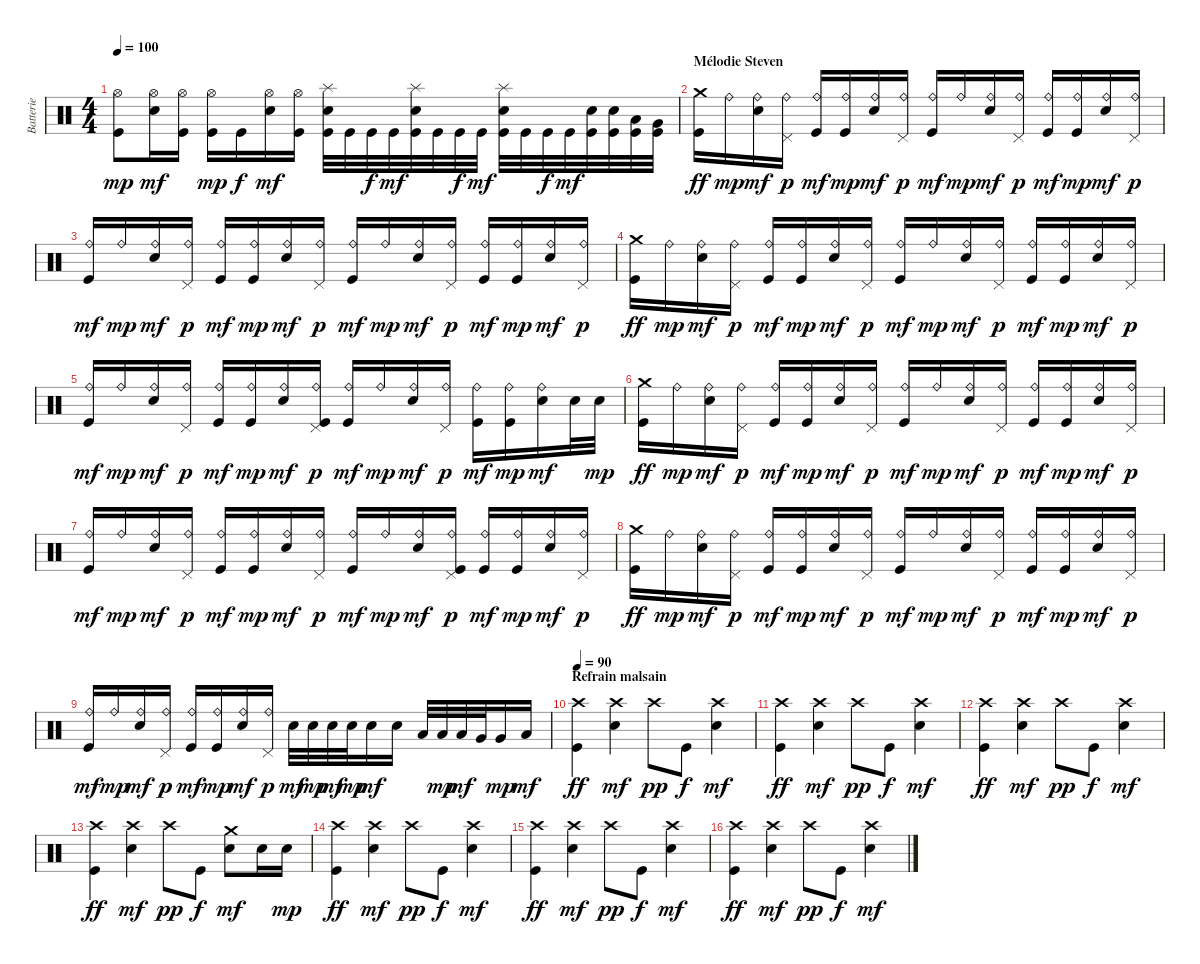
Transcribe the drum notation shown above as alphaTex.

\track ("Batterie" "Batterie") {instrument percussion}
\staff {score}
\articulation defaults
\ts (4 4)
\tempo 100
\clef neutral
\ks c
("Hi-Hat (open)" "Kick (hit)").8{dy mp} ("Hi-Hat (open)" "Electric Snare (hit)").16{dy mf} ("Hi-Hat (open)" "Kick (hit)").16 ("Hi-Hat (open)" "Kick (hit)").16{dy mp} "Kick (hit)".16{dy f} ("Hi-Hat (open)" "Electric Snare (hit)").16{dy mf} ("Hi-Hat (open)" "Kick (hit)").16 ("Splash (hit)" "Electric Snare (hit)" "Kick (hit)").32 "Kick (hit)".32 "Kick (hit)".32{dy f} "Kick (hit)".32{dy mf} ("Splash (hit)" "Electric Snare (hit)" "Kick (hit)").32 "Kick (hit)".32 "Kick (hit)".32{dy f} "Kick (hit)".32{dy mf} ("Splash (hit)" "Electric Snare (hit)" "Kick (hit)").32 "Kick (hit)".32 "Kick (hit)".32{dy f} "Kick (hit)".32{dy mf} ("Electric Snare (hit)" "Kick (hit)").32 ("Electric Snare (hit)" "Kick (hit)").32 ("Low Tom (hit)" "Kick (hit)").32 ("Very Low Tom (hit)" "Kick (hit)").32 |
\section ("" "Mélodie Steven")
("Crash medium (hit)" "Kick (hit)").16{dy ff} "Ride (bell)".16{dy mp} ("Ride (bell)" "Electric Snare (hit)").16{dy mf} ("Ride (bell)" "Pedal Hi-Hat (hit)").16{dy p} ("Ride (bell)" "Kick (hit)").16{dy mf} ("Ride (bell)" "Kick (hit)").16{dy mp} ("Ride (bell)" "Electric Snare (hit)").16{dy mf} ("Ride (bell)" "Pedal Hi-Hat (hit)").16{dy p} ("Ride (bell)" "Kick (hit)").16{dy mf} "Ride (bell)".16{dy mp} ("Ride (bell)" "Electric Snare (hit)").16{dy mf} ("Ride (bell)" "Pedal Hi-Hat (hit)").16{dy p} ("Ride (bell)" "Kick (hit)").16{dy mf} ("Ride (bell)" "Kick (hit)").16{dy mp} ("Ride (bell)" "Electric Snare (hit)").16{dy mf} ("Ride (bell)" "Pedal Hi-Hat (hit)").16{dy p} |
("Ride (bell)" "Kick (hit)").16{dy mf} "Ride (bell)".16{dy mp} ("Ride (bell)" "Electric Snare (hit)").16{dy mf} ("Ride (bell)" "Pedal Hi-Hat (hit)").16{dy p} ("Ride (bell)" "Kick (hit)").16{dy mf} ("Ride (bell)" "Kick (hit)").16{dy mp} ("Ride (bell)" "Electric Snare (hit)").16{dy mf} ("Ride (bell)" "Pedal Hi-Hat (hit)").16{dy p} ("Ride (bell)" "Kick (hit)").16{dy mf} "Ride (bell)".16{dy mp} ("Ride (bell)" "Electric Snare (hit)").16{dy mf} ("Ride (bell)" "Pedal Hi-Hat (hit)").16{dy p} ("Ride (bell)" "Kick (hit)").16{dy mf} ("Ride (bell)" "Kick (hit)").16{dy mp} ("Ride (bell)" "Electric Snare (hit)").16{dy mf} ("Ride (bell)" "Pedal Hi-Hat (hit)").16{dy p} |
("Crash medium (hit)" "Kick (hit)").16{dy ff} "Ride (bell)".16{dy mp} ("Ride (bell)" "Electric Snare (hit)").16{dy mf} ("Ride (bell)" "Pedal Hi-Hat (hit)").16{dy p} ("Ride (bell)" "Kick (hit)").16{dy mf} ("Ride (bell)" "Kick (hit)").16{dy mp} ("Ride (bell)" "Electric Snare (hit)").16{dy mf} ("Ride (bell)" "Pedal Hi-Hat (hit)").16{dy p} ("Ride (bell)" "Kick (hit)").16{dy mf} "Ride (bell)".16{dy mp} ("Ride (bell)" "Electric Snare (hit)").16{dy mf} ("Ride (bell)" "Pedal Hi-Hat (hit)").16{dy p} ("Ride (bell)" "Kick (hit)").16{dy mf} ("Ride (bell)" "Kick (hit)").16{dy mp} ("Ride (bell)" "Electric Snare (hit)").16{dy mf} ("Ride (bell)" "Pedal Hi-Hat (hit)").16{dy p} |
("Ride (bell)" "Kick (hit)").16{dy mf} "Ride (bell)".16{dy mp} ("Ride (bell)" "Electric Snare (hit)").16{dy mf} ("Ride (bell)" "Pedal Hi-Hat (hit)").16{dy p} ("Ride (bell)" "Kick (hit)").16{dy mf} ("Ride (bell)" "Kick (hit)").16{dy mp} ("Ride (bell)" "Electric Snare (hit)").16{dy mf} ("Ride (bell)" "Pedal Hi-Hat (hit)" "Kick (hit)").16{dy p} ("Ride (bell)" "Kick (hit)").16{dy mf} "Ride (bell)".16{dy mp} ("Ride (bell)" "Electric Snare (hit)").16{dy mf} ("Ride (bell)" "Pedal Hi-Hat (hit)").16{dy p} ("Ride (bell)" "Kick (hit)").16{dy mf} ("Ride (bell)" "Kick (hit)").16{dy mp} ("Ride (bell)" "Electric Snare (hit)").16{dy mf} "Electric Snare (hit)".32 "Electric Snare (hit)".32{dy mp} |
("Crash medium (hit)" "Kick (hit)").16{dy ff} "Ride (bell)".16{dy mp} ("Ride (bell)" "Electric Snare (hit)").16{dy mf} ("Ride (bell)" "Pedal Hi-Hat (hit)").16{dy p} ("Ride (bell)" "Kick (hit)").16{dy mf} ("Ride (bell)" "Kick (hit)").16{dy mp} ("Ride (bell)" "Electric Snare (hit)").16{dy mf} ("Ride (bell)" "Pedal Hi-Hat (hit)").16{dy p} ("Ride (bell)" "Kick (hit)").16{dy mf} "Ride (bell)".16{dy mp} ("Ride (bell)" "Electric Snare (hit)").16{dy mf} ("Ride (bell)" "Pedal Hi-Hat (hit)").16{dy p} ("Ride (bell)" "Kick (hit)").16{dy mf} ("Ride (bell)" "Kick (hit)").16{dy mp} ("Ride (bell)" "Electric Snare (hit)").16{dy mf} ("Ride (bell)" "Pedal Hi-Hat (hit)").16{dy p} |
("Ride (bell)" "Kick (hit)").16{dy mf} "Ride (bell)".16{dy mp} ("Ride (bell)" "Electric Snare (hit)").16{dy mf} ("Ride (bell)" "Pedal Hi-Hat (hit)").16{dy p} ("Ride (bell)" "Kick (hit)").16{dy mf} ("Ride (bell)" "Kick (hit)").16{dy mp} ("Ride (bell)" "Electric Snare (hit)").16{dy mf} ("Ride (bell)" "Pedal Hi-Hat (hit)").16{dy p} ("Ride (bell)" "Kick (hit)").16{dy mf} "Ride (bell)".16{dy mp} ("Ride (bell)" "Electric Snare (hit)").16{dy mf} ("Ride (bell)" "Pedal Hi-Hat (hit)" "Kick (hit)").16{dy p} ("Ride (bell)" "Kick (hit)").16{dy mf} ("Ride (bell)" "Kick (hit)").16{dy mp} ("Ride (bell)" "Electric Snare (hit)").16{dy mf} ("Ride (bell)" "Pedal Hi-Hat (hit)").16{dy p} |
("Crash medium (hit)" "Kick (hit)").16{dy ff} "Ride (bell)".16{dy mp} ("Ride (bell)" "Electric Snare (hit)").16{dy mf} ("Ride (bell)" "Pedal Hi-Hat (hit)").16{dy p} ("Ride (bell)" "Kick (hit)").16{dy mf} ("Ride (bell)" "Kick (hit)").16{dy mp} ("Ride (bell)" "Electric Snare (hit)").16{dy mf} ("Ride (bell)" "Pedal Hi-Hat (hit)").16{dy p} ("Ride (bell)" "Kick (hit)").16{dy mf} "Ride (bell)".16{dy mp} ("Ride (bell)" "Electric Snare (hit)").16{dy mf} ("Ride (bell)" "Pedal Hi-Hat (hit)").16{dy p} ("Ride (bell)" "Kick (hit)").16{dy mf} ("Ride (bell)" "Kick (hit)").16{dy mp} ("Ride (bell)" "Electric Snare (hit)").16{dy mf} ("Ride (bell)" "Pedal Hi-Hat (hit)").16{dy p} |
("Ride (bell)" "Kick (hit)").16{dy mf} "Ride (bell)".16{dy mp} ("Ride (bell)" "Electric Snare (hit)").16{dy mf} ("Ride (bell)" "Pedal Hi-Hat (hit)").16{dy p} ("Ride (bell)" "Kick (hit)").16{dy mf} ("Ride (bell)" "Kick (hit)").16{dy mp} ("Ride (bell)" "Electric Snare (hit)").16{dy mf} ("Ride (bell)" "Pedal Hi-Hat (hit)").16{dy p} "Electric Snare (hit)".32{dy mf} "Electric Snare (hit)".32{dy mp} "Electric Snare (hit)".32{dy mf} "Electric Snare (hit)".32{dy mp} "Electric Snare (hit)".16{dy mf} "Electric Snare (hit)".16 "Low Tom (hit)".32 "Low Tom (hit)".32{dy mp} "Low Tom (hit)".32{dy mf} "Very Low Tom (hit)".32 "Very Low Tom (hit)".16{dy mp} "Low Floor Tom (hit)".16{dy mf} |
\section ("" "Refrain malsain")
\tempo 90
("Crash high (hit)" "Kick (hit)").4{dy ff} ("Crash high (hit)" "Electric Snare (hit)").4{dy mf} "Crash high (hit)".8{dy pp} "Kick (hit)".8{dy f} ("Crash high (hit)" "Electric Snare (hit)").4{dy mf} |
("Crash high (hit)" "Kick (hit)").4{dy ff} ("Crash high (hit)" "Electric Snare (hit)").4{dy mf} "Crash high (hit)".8{dy pp} "Kick (hit)".8{dy f} ("Crash high (hit)" "Electric Snare (hit)").4{dy mf} |
("Crash high (hit)" "Kick (hit)").4{dy ff} ("Crash high (hit)" "Electric Snare (hit)").4{dy mf} "Crash high (hit)".8{dy pp} "Kick (hit)".8{dy f} ("Crash high (hit)" "Electric Snare (hit)").4{dy mf} |
("Crash high (hit)" "Kick (hit)").4{dy ff} ("Crash high (hit)" "Electric Snare (hit)").4{dy mf} "Crash high (hit)".8{dy pp} "Kick (hit)".8{dy f} ("Crash medium (hit)" "Electric Snare (hit)").8{dy mf} "Electric Snare (hit)".16 "Electric Snare (hit)".16{dy mp} |
("Crash high (hit)" "Kick (hit)").4{dy ff} ("Crash high (hit)" "Electric Snare (hit)").4{dy mf} "Crash high (hit)".8{dy pp} "Kick (hit)".8{dy f} ("Crash high (hit)" "Electric Snare (hit)").4{dy mf} |
("Crash high (hit)" "Kick (hit)").4{dy ff} ("Crash high (hit)" "Electric Snare (hit)").4{dy mf} "Crash high (hit)".8{dy pp} "Kick (hit)".8{dy f} ("Crash high (hit)" "Electric Snare (hit)").4{dy mf} |
("Crash high (hit)" "Kick (hit)").4{dy ff} ("Crash high (hit)" "Electric Snare (hit)").4{dy mf} "Crash high (hit)".8{dy pp} "Kick (hit)".8{dy f} ("Crash high (hit)" "Electric Snare (hit)").4{dy mf}
